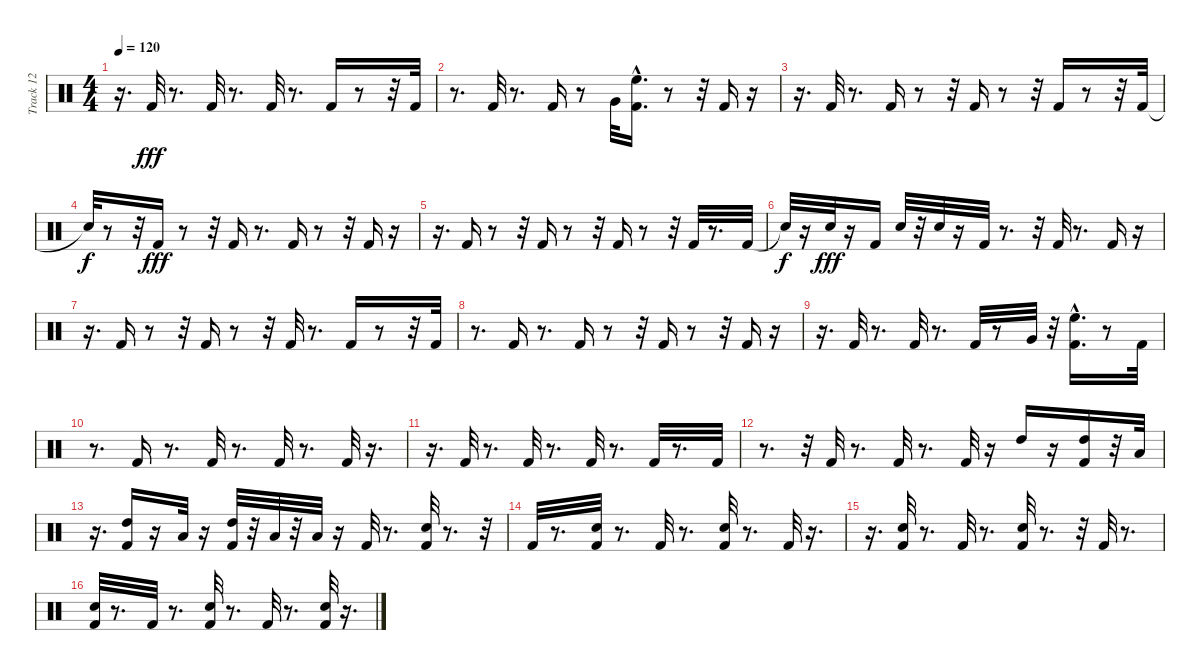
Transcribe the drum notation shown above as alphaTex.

\track ("Track 12" "Track 12") {instrument percussion}
\staff {score}
\articulation defaults
\ts (4 4)
\tempo 120
\clef neutral
\ks c
r.16{d dy fff} "Kick (hit) 2".32 r.8{d} "Kick (hit) 2".32 r.8{d} "Kick (hit) 2".32 r.8{d} "Kick (hit) 2".16 r.8 r.32 "Kick (hit) 2".32 |
r.8{d} "Kick (hit) 2".32 r.8{d} "Kick (hit) 2".16 r.8 "Very Low Tom (hit)".32 ("High Floor Tom (hit)"{hac} "Kick (hit) 2").16{d} r.8 r.32 "Kick (hit) 2".16 r.16 |
r.16{d} "Kick (hit) 2".32 r.8{d} "Kick (hit) 2".16 r.8 r.32 "Kick (hit) 2".16 r.8 r.32 "Kick (hit) 2".16 r.8 r.32 "Kick (hit) 2".32 |
"Snare (hit)"{t}.32{dy f} r.8 r.32 "Kick (hit) 2".16{dy fff} r.8 r.32 "Kick (hit) 2".16 r.8{d} "Kick (hit) 2".16 r.8 r.32 "Kick (hit) 2".16 r.16 |
r.16{d} "Kick (hit) 2".16 r.8 r.32 "Kick (hit) 2".16 r.8 r.32 "Kick (hit) 2".16 r.8 r.32 "Kick (hit) 2".32 r.8{d} "Kick (hit) 2".32 |
"Snare (hit)"{t}.32{dy f} r.16 "Electric Snare (hit)".32{dy fff} r.16 "Kick (hit) 2".16 "Electric Snare (hit)".32 r.32 "Electric Snare (hit)".32 r.16 "Kick (hit) 2".32 r.8{d} r.32 "Kick (hit) 2".32 r.8{d} "Kick (hit) 2".16 r.16 |
r.16{d} "Kick (hit) 2".16 r.8 r.32 "Kick (hit) 2".16 r.8 r.32 "Kick (hit) 2".32 r.8{d} "Kick (hit) 2".16 r.8 r.32 "Kick (hit) 2".32 |
r.8{d} "Kick (hit) 2".16 r.8{d} "Kick (hit) 2".16 r.8 r.32 "Kick (hit) 2".16 r.8 r.32 "Kick (hit) 2".16 r.16 |
r.16{d} "Kick (hit) 2".32 r.8{d} "Kick (hit) 2".32 r.8{d} "Kick (hit) 2".32 r.8 "Very Low Tom (hit)".32 r.32 ("High Floor Tom (hit)"{hac} "Kick (hit) 2").16{d} r.8 "Kick (hit) 2".32 |
r.8{d} "Kick (hit) 2".16 r.8{d} "Kick (hit) 2".32 r.8{d} "Kick (hit) 2".32 r.8{d} "Kick (hit) 2".32 r.16{d} |
r.16{d} "Kick (hit) 2".32 r.8{d} "Kick (hit) 2".32 r.8{d} "Kick (hit) 2".32 r.8{d} "Kick (hit) 2".32 r.8{d} "Kick (hit) 2".32 |
r.8{d} r.32 "Kick (hit) 2".32 r.8{d} "Kick (hit) 2".32 r.8{d} "Kick (hit) 2".32 r.16 "High Tom (hit)".16 r.16 ("High Tom (hit)" "Kick (hit) 2").16 r.32 "Low Floor Tom (hit)".32 |
r.16{d} ("High Tom (hit)" "Kick (hit) 2").16 r.16 "Low Floor Tom (hit)".32 r.16 ("High Tom (hit)" "Kick (hit) 2").32 r.32 "Low Tom (hit)".32 r.32 "Low Floor Tom (hit)".32 r.16 "Kick (hit) 2".32 r.8{d} ("Electric Snare (hit)" "Kick (hit) 2").32 r.8{d} r.32 |
"Kick (hit) 2".32 r.8{d} ("Electric Snare (hit)" "Kick (hit) 2").32 r.8{d} "Kick (hit) 2".32 r.8{d} ("Kick (hit) 2" "Electric Snare (hit)").32 r.8{d} "Kick (hit) 2".32 r.16{d} |
r.16{d} ("Electric Snare (hit)" "Kick (hit) 2").32 r.8{d} "Kick (hit) 2".32 r.8{d} ("Kick (hit) 2" "Electric Snare (hit)").32 r.8{d} r.32 "Kick (hit) 2".32 r.8{d} |
("Electric Snare (hit)" "Kick (hit) 2").32 r.8{d} "Kick (hit) 2".32 r.8{d} ("Kick (hit) 2" "Electric Snare (hit)").32 r.8{d} "Kick (hit) 2".32 r.8{d} ("Kick (hit) 2" "Electric Snare (hit)").32 r.16{d}
